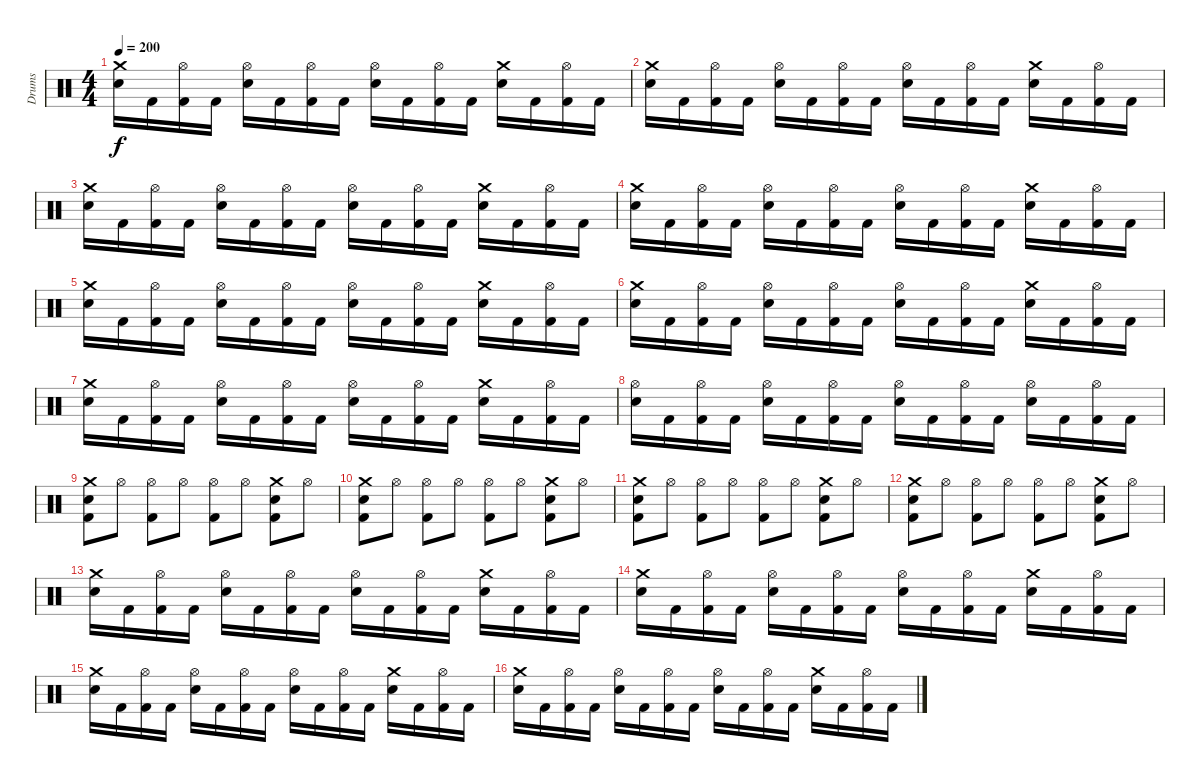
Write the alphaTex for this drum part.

\track ("Drums" "Drums") {instrument percussion}
\staff {score}
\articulation defaults
\ts (4 4)
\tempo 200
\clef neutral
\ks c
("Crash medium (hit)" "Snare (hit) 2").16{dy f} "Kick (hit) 2".16 ("Hi-Hat (open)" "Kick (hit) 2").16 "Kick (hit) 2".16 ("Hi-Hat (open)" "Snare (hit) 2").16 "Kick (hit) 2".16 ("Hi-Hat (open)" "Kick (hit) 2").16 "Kick (hit) 2".16 ("Hi-Hat (open)" "Snare (hit) 2").16 "Kick (hit) 2".16 ("Hi-Hat (open)" "Kick (hit) 2").16 "Kick (hit) 2".16 ("Crash medium (hit)" "Snare (hit) 2").16 "Kick (hit) 2".16 ("Hi-Hat (open)" "Kick (hit) 2").16 "Kick (hit) 2".16 |
("Crash medium (hit)" "Snare (hit) 2").16 "Kick (hit) 2".16 ("Hi-Hat (open)" "Kick (hit) 2").16 "Kick (hit) 2".16 ("Hi-Hat (open)" "Snare (hit) 2").16 "Kick (hit) 2".16 ("Hi-Hat (open)" "Kick (hit) 2").16 "Kick (hit) 2".16 ("Hi-Hat (open)" "Snare (hit) 2").16 "Kick (hit) 2".16 ("Hi-Hat (open)" "Kick (hit) 2").16 "Kick (hit) 2".16 ("Crash medium (hit)" "Snare (hit) 2").16 "Kick (hit) 2".16 ("Hi-Hat (open)" "Kick (hit) 2").16 "Kick (hit) 2".16 |
("Crash medium (hit)" "Snare (hit) 2").16 "Kick (hit) 2".16 ("Hi-Hat (open)" "Kick (hit) 2").16 "Kick (hit) 2".16 ("Hi-Hat (open)" "Snare (hit) 2").16 "Kick (hit) 2".16 ("Hi-Hat (open)" "Kick (hit) 2").16 "Kick (hit) 2".16 ("Hi-Hat (open)" "Snare (hit) 2").16 "Kick (hit) 2".16 ("Hi-Hat (open)" "Kick (hit) 2").16 "Kick (hit) 2".16 ("Crash medium (hit)" "Snare (hit) 2").16 "Kick (hit) 2".16 ("Hi-Hat (open)" "Kick (hit) 2").16 "Kick (hit) 2".16 |
("Crash medium (hit)" "Snare (hit) 2").16 "Kick (hit) 2".16 ("Hi-Hat (open)" "Kick (hit) 2").16 "Kick (hit) 2".16 ("Hi-Hat (open)" "Snare (hit) 2").16 "Kick (hit) 2".16 ("Hi-Hat (open)" "Kick (hit) 2").16 "Kick (hit) 2".16 ("Hi-Hat (open)" "Snare (hit) 2").16 "Kick (hit) 2".16 ("Hi-Hat (open)" "Kick (hit) 2").16 "Kick (hit) 2".16 ("Crash medium (hit)" "Snare (hit) 2").16 "Kick (hit) 2".16 ("Hi-Hat (open)" "Kick (hit) 2").16 "Kick (hit) 2".16 |
("Crash medium (hit)" "Snare (hit) 2").16 "Kick (hit) 2".16 ("Hi-Hat (open)" "Kick (hit) 2").16 "Kick (hit) 2".16 ("Hi-Hat (open)" "Snare (hit) 2").16 "Kick (hit) 2".16 ("Hi-Hat (open)" "Kick (hit) 2").16 "Kick (hit) 2".16 ("Hi-Hat (open)" "Snare (hit) 2").16 "Kick (hit) 2".16 ("Hi-Hat (open)" "Kick (hit) 2").16 "Kick (hit) 2".16 ("Crash medium (hit)" "Snare (hit) 2").16 "Kick (hit) 2".16 ("Hi-Hat (open)" "Kick (hit) 2").16 "Kick (hit) 2".16 |
("Crash medium (hit)" "Snare (hit) 2").16 "Kick (hit) 2".16 ("Hi-Hat (open)" "Kick (hit) 2").16 "Kick (hit) 2".16 ("Hi-Hat (open)" "Snare (hit) 2").16 "Kick (hit) 2".16 ("Hi-Hat (open)" "Kick (hit) 2").16 "Kick (hit) 2".16 ("Hi-Hat (open)" "Snare (hit) 2").16 "Kick (hit) 2".16 ("Hi-Hat (open)" "Kick (hit) 2").16 "Kick (hit) 2".16 ("Crash medium (hit)" "Snare (hit) 2").16 "Kick (hit) 2".16 ("Hi-Hat (open)" "Kick (hit) 2").16 "Kick (hit) 2".16 |
("Crash medium (hit)" "Snare (hit) 2").16 "Kick (hit) 2".16 ("Hi-Hat (open)" "Kick (hit) 2").16 "Kick (hit) 2".16 ("Hi-Hat (open)" "Snare (hit) 2").16 "Kick (hit) 2".16 ("Hi-Hat (open)" "Kick (hit) 2").16 "Kick (hit) 2".16 ("Hi-Hat (open)" "Snare (hit) 2").16 "Kick (hit) 2".16 ("Hi-Hat (open)" "Kick (hit) 2").16 "Kick (hit) 2".16 ("Crash medium (hit)" "Snare (hit) 2").16 "Kick (hit) 2".16 ("Hi-Hat (open)" "Kick (hit) 2").16 "Kick (hit) 2".16 |
("Hi-Hat (open)" "Snare (hit) 2").16 "Kick (hit) 2".16 ("Hi-Hat (open)" "Kick (hit) 2").16 "Kick (hit) 2".16 ("Hi-Hat (open)" "Snare (hit) 2").16 "Kick (hit) 2".16 ("Hi-Hat (open)" "Kick (hit) 2").16 "Kick (hit) 2".16 ("Hi-Hat (open)" "Snare (hit) 2").16 "Kick (hit) 2".16 ("Hi-Hat (open)" "Kick (hit) 2").16 "Kick (hit) 2".16 ("Hi-Hat (open)" "Snare (hit) 2").16 "Kick (hit) 2".16 ("Hi-Hat (open)" "Kick (hit) 2").16 "Kick (hit) 2".16 |
("Crash medium (hit)" "Snare (hit) 2" "Kick (hit) 2").8 "Hi-Hat (open)".8 ("Hi-Hat (open)" "Kick (hit) 2").8 "Hi-Hat (open)".8 ("Hi-Hat (open)" "Kick (hit) 2").8 "Hi-Hat (open)".8 ("Crash medium (hit)" "Snare (hit) 2" "Kick (hit) 2").8 "Hi-Hat (open)".8 |
("Crash medium (hit)" "Snare (hit) 2" "Kick (hit) 2").8 "Hi-Hat (open)".8 ("Hi-Hat (open)" "Kick (hit) 2").8 "Hi-Hat (open)".8 ("Hi-Hat (open)" "Kick (hit) 2").8 "Hi-Hat (open)".8 ("Crash medium (hit)" "Snare (hit) 2" "Kick (hit) 2").8 "Hi-Hat (open)".8 |
("Crash medium (hit)" "Snare (hit) 2" "Kick (hit) 2").8 "Hi-Hat (open)".8 ("Hi-Hat (open)" "Kick (hit) 2").8 "Hi-Hat (open)".8 ("Hi-Hat (open)" "Kick (hit) 2").8 "Hi-Hat (open)".8 ("Crash medium (hit)" "Snare (hit) 2" "Kick (hit) 2").8 "Hi-Hat (open)".8 |
("Crash medium (hit)" "Snare (hit) 2" "Kick (hit) 2").8 "Hi-Hat (open)".8 ("Hi-Hat (open)" "Kick (hit) 2").8 "Hi-Hat (open)".8 ("Hi-Hat (open)" "Kick (hit) 2").8 "Hi-Hat (open)".8 ("Crash medium (hit)" "Snare (hit) 2" "Kick (hit) 2").8 "Hi-Hat (open)".8 |
("Crash medium (hit)" "Snare (hit) 2").16 "Kick (hit) 2".16 ("Hi-Hat (open)" "Kick (hit) 2").16 "Kick (hit) 2".16 ("Hi-Hat (open)" "Snare (hit) 2").16 "Kick (hit) 2".16 ("Hi-Hat (open)" "Kick (hit) 2").16 "Kick (hit) 2".16 ("Hi-Hat (open)" "Snare (hit) 2").16 "Kick (hit) 2".16 ("Hi-Hat (open)" "Kick (hit) 2").16 "Kick (hit) 2".16 ("Crash medium (hit)" "Snare (hit) 2").16 "Kick (hit) 2".16 ("Hi-Hat (open)" "Kick (hit) 2").16 "Kick (hit) 2".16 |
("Crash medium (hit)" "Snare (hit) 2").16 "Kick (hit) 2".16 ("Hi-Hat (open)" "Kick (hit) 2").16 "Kick (hit) 2".16 ("Hi-Hat (open)" "Snare (hit) 2").16 "Kick (hit) 2".16 ("Hi-Hat (open)" "Kick (hit) 2").16 "Kick (hit) 2".16 ("Hi-Hat (open)" "Snare (hit) 2").16 "Kick (hit) 2".16 ("Hi-Hat (open)" "Kick (hit) 2").16 "Kick (hit) 2".16 ("Crash medium (hit)" "Snare (hit) 2").16 "Kick (hit) 2".16 ("Hi-Hat (open)" "Kick (hit) 2").16 "Kick (hit) 2".16 |
("Crash medium (hit)" "Snare (hit) 2").16 "Kick (hit) 2".16 ("Hi-Hat (open)" "Kick (hit) 2").16 "Kick (hit) 2".16 ("Hi-Hat (open)" "Snare (hit) 2").16 "Kick (hit) 2".16 ("Hi-Hat (open)" "Kick (hit) 2").16 "Kick (hit) 2".16 ("Hi-Hat (open)" "Snare (hit) 2").16 "Kick (hit) 2".16 ("Hi-Hat (open)" "Kick (hit) 2").16 "Kick (hit) 2".16 ("Crash medium (hit)" "Snare (hit) 2").16 "Kick (hit) 2".16 ("Hi-Hat (open)" "Kick (hit) 2").16 "Kick (hit) 2".16 |
("Crash medium (hit)" "Snare (hit) 2").16 "Kick (hit) 2".16 ("Hi-Hat (open)" "Kick (hit) 2").16 "Kick (hit) 2".16 ("Hi-Hat (open)" "Snare (hit) 2").16 "Kick (hit) 2".16 ("Hi-Hat (open)" "Kick (hit) 2").16 "Kick (hit) 2".16 ("Hi-Hat (open)" "Snare (hit) 2").16 "Kick (hit) 2".16 ("Hi-Hat (open)" "Kick (hit) 2").16 "Kick (hit) 2".16 ("Crash medium (hit)" "Snare (hit) 2").16 "Kick (hit) 2".16 ("Hi-Hat (open)" "Kick (hit) 2").16 "Kick (hit) 2".16
